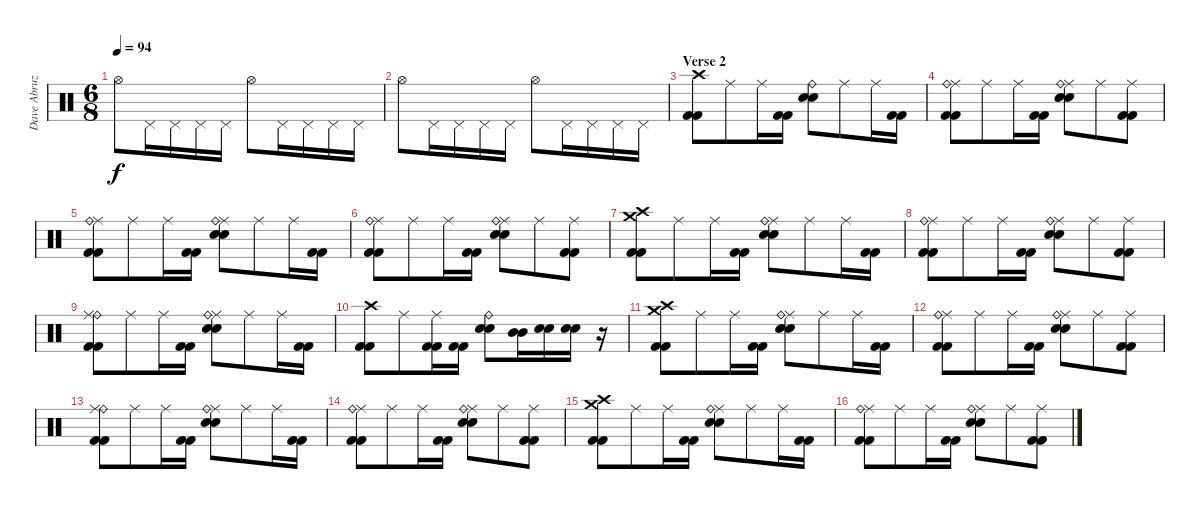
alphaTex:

\track ("Dave Abruzzese" "Dave Abruz") {instrument percussion}
\staff {score}
\articulation defaults
\ts (6 8)
\tempo 94
\clef neutral
\ks c "Hi-Hat (open)".8{dy f} "Pedal Hi-Hat (hit)".16 "Pedal Hi-Hat (hit)".16 "Pedal Hi-Hat (hit)".16 "Pedal Hi-Hat (hit)".16 "Hi-Hat (open)".8 "Pedal Hi-Hat (hit)".16 "Pedal Hi-Hat (hit)".16 "Pedal Hi-Hat (hit)".16 "Pedal Hi-Hat (hit)".16
|
"Hi-Hat (open)".8 "Pedal Hi-Hat (hit)".16 "Pedal Hi-Hat (hit)".16 "Pedal Hi-Hat (hit)".16 "Pedal Hi-Hat (hit)".16 "Hi-Hat (open)".8 "Pedal Hi-Hat (hit)".16 "Pedal Hi-Hat (hit)".16 "Pedal Hi-Hat (hit)".16 "Pedal Hi-Hat (hit)".16 |
\section ("" "Verse 2")
("Crash high (hit)" "Kick (hit) 2" "Kick (hit) 2").8 "Ride (middle)".8 "Ride (middle)".16 ("Kick (hit) 2" "Kick (hit) 2").16 ("Ride (bell)" "Electric Snare (hit)" "Electric Snare (hit)").8 "Ride (middle)".8 "Ride (middle)".16 ("Kick (hit) 2" "Kick (hit) 2").16 |
("Ride (middle)" "Ride (bell)" "Kick (hit) 2" "Kick (hit) 2").8 "Ride (middle)".8 "Ride (middle)".16 ("Kick (hit) 2" "Kick (hit) 2").16 ("Ride (middle)" "Ride (bell)" "Electric Snare (hit)" "Electric Snare (hit)").8 "Ride (middle)".8 ("Ride (middle)" "Kick (hit) 2" "Kick (hit) 2").8 |
("Ride (middle)" "Ride (bell)" "Kick (hit) 2" "Kick (hit) 2").8 "Ride (middle)".8 "Ride (middle)".16 ("Kick (hit) 2" "Kick (hit) 2").16 ("Ride (middle)" "Ride (bell)" "Electric Snare (hit)" "Electric Snare (hit)").8 "Ride (middle)".8 "Ride (middle)".16 ("Kick (hit) 2" "Kick (hit) 2").16 |
("Ride (middle)" "Ride (bell)" "Kick (hit) 2" "Kick (hit) 2").8 "Ride (middle)".8 "Ride (middle)".16 ("Kick (hit) 2" "Kick (hit) 2").16 ("Ride (middle)" "Ride (bell)" "Electric Snare (hit)" "Electric Snare (hit)").8 "Ride (middle)".8 ("Ride (middle)" "Kick (hit) 2" "Kick (hit) 2").8 |
("Crash medium (hit)" "Crash high (hit)" "Kick (hit) 2" "Kick (hit) 2").8 "Ride (middle)".8 "Ride (middle)".16 ("Kick (hit) 2" "Kick (hit) 2").16 ("Ride (middle)" "Ride (bell)" "Electric Snare (hit)" "Electric Snare (hit)").8 "Ride (middle)".8 "Ride (middle)".16 ("Kick (hit) 2" "Kick (hit) 2").16 |
("Ride (middle)" "Ride (bell)" "Kick (hit) 2" "Kick (hit) 2").8 "Ride (middle)".8 "Ride (middle)".16 ("Kick (hit) 2" "Kick (hit) 2").16 ("Ride (middle)" "Ride (bell)" "Electric Snare (hit)" "Electric Snare (hit)").8 "Ride (middle)".8 ("Ride (middle)" "Kick (hit) 2" "Kick (hit) 2").8 |
("Ride (bell)" "Ride (middle)" "Kick (hit) 2" "Kick (hit) 2").8 "Ride (middle)".8 "Ride (middle)".16 ("Kick (hit) 2" "Kick (hit) 2").16 ("Ride (middle)" "Ride (bell)" "Electric Snare (hit)" "Electric Snare (hit)").8 "Ride (middle)".8 "Ride (middle)".16 ("Kick (hit) 2" "Kick (hit) 2").16 |
("Crash high (hit)" "Kick (hit) 2" "Kick (hit) 2").8 "Ride (middle)".8 ("Ride (middle)" "Kick (hit) 2" "Kick (hit) 2").16 ("Kick (hit) 2" "Kick (hit) 2").16 ("Ride (bell)" "Electric Snare (hit)" "Electric Snare (hit)").8 ("Mid Tom (hit)" "Mid Tom (hit)").16 ("Electric Snare (hit)" "Electric Snare (hit)").16 ("Electric Snare (hit)" "Electric Snare (hit)").16 r.16 |
("Crash medium (hit)" "Crash high (hit)" "Kick (hit) 2" "Kick (hit) 2").8 "Ride (middle)".8 "Ride (middle)".16 ("Kick (hit) 2" "Kick (hit) 2").16 ("Ride (middle)" "Ride (bell)" "Electric Snare (hit)" "Electric Snare (hit)").8 "Ride (middle)".8 "Ride (middle)".16 ("Kick (hit) 2" "Kick (hit) 2").16 |
("Ride (middle)" "Ride (bell)" "Kick (hit) 2" "Kick (hit) 2").8 "Ride (middle)".8 "Ride (middle)".16 ("Kick (hit) 2" "Kick (hit) 2").16 ("Ride (middle)" "Ride (bell)" "Electric Snare (hit)" "Electric Snare (hit)").8 "Ride (middle)".8 ("Ride (middle)" "Kick (hit) 2" "Kick (hit) 2").8 |
("Ride (bell)" "Ride (middle)" "Kick (hit) 2" "Kick (hit) 2").8 "Ride (middle)".8 "Ride (middle)".16 ("Kick (hit) 2" "Kick (hit) 2").16 ("Ride (middle)" "Ride (bell)" "Electric Snare (hit)" "Electric Snare (hit)").8 "Ride (middle)".8 "Ride (middle)".16 ("Kick (hit) 2" "Kick (hit) 2").16 |
("Ride (middle)" "Ride (bell)" "Kick (hit) 2" "Kick (hit) 2").8 "Ride (middle)".8 "Ride (middle)".16 ("Kick (hit) 2" "Kick (hit) 2").16 ("Ride (middle)" "Ride (bell)" "Electric Snare (hit)" "Electric Snare (hit)").8 "Ride (middle)".8 ("Ride (middle)" "Kick (hit) 2" "Kick (hit) 2").8 |
("Crash medium (hit)" "Crash high (hit)" "Kick (hit) 2" "Kick (hit) 2").8 "Ride (middle)".8 "Ride (middle)".16 ("Kick (hit) 2" "Kick (hit) 2").16 ("Ride (middle)" "Ride (bell)" "Electric Snare (hit)" "Electric Snare (hit)").8 "Ride (middle)".8 "Ride (middle)".16 ("Kick (hit) 2" "Kick (hit) 2").16 |
("Ride (middle)" "Ride (bell)" "Kick (hit) 2" "Kick (hit) 2").8 "Ride (middle)".8 "Ride (middle)".16 ("Kick (hit) 2" "Kick (hit) 2").16 ("Ride (middle)" "Ride (bell)" "Electric Snare (hit)" "Electric Snare (hit)").8 "Ride (middle)".8 ("Ride (middle)" "Kick (hit) 2" "Kick (hit) 2").8
